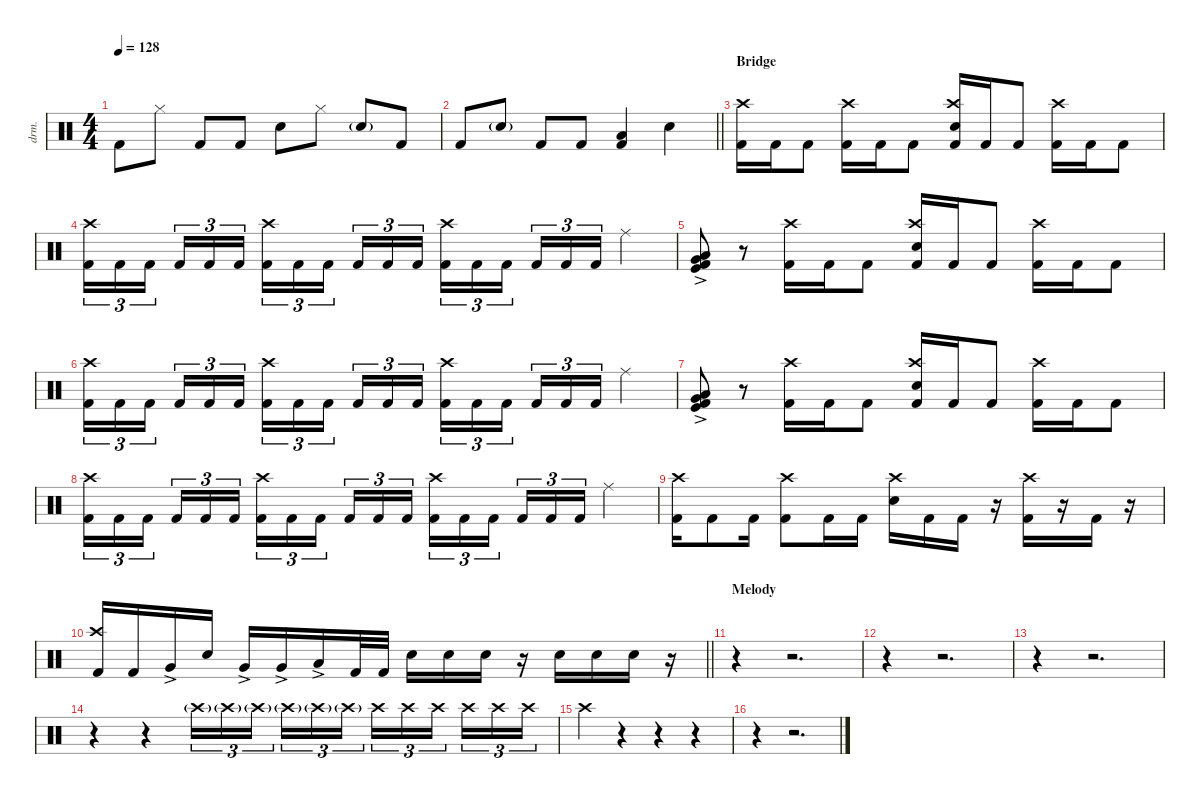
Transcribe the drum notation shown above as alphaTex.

\defaultSystemsLayout 4
\hideDynamics
\bracketExtendMode nobrackets
\otherSystemsTrackNameOrientation horizontal
\track ("Drums" "drm.") {instrument percussion}
\staff {score}
\articulation defaults
\ts (4 4)
\tempo 128
\clef neutral
\ks c "Kick (hit) 2".8{dy f beam Down} "Hi-Hat (closed)".8{beam Down} "Kick (hit) 2".8{beam Up} "Kick (hit) 2".8{beam Up} "Snare (hit) 2".8{beam Down} "Hi-Hat (closed)".8{beam Down} "Snare (hit) 2"{g}.8{beam Up} "Kick (hit) 2".8{beam Up}
|
\barLineRight lightlight "Kick (hit) 2".8{beam Up} "Snare (hit) 2"{g}.8{beam Up} "Kick (hit) 2".8{beam Up} "Kick (hit) 2".8{beam Up}
("Low Tom (hit)" "Kick (hit) 2").4{beam Up} "Snare (hit) 2".4{beam Down} |
\section ("" "Bridge")
("Crash high (hit)" "Kick (hit) 2").16{beam Down} "Kick (hit) 2".16{beam Down} "Kick (hit) 2".8{beam Down} ("Crash high (hit)" "Kick (hit) 2").16{beam Down} "Kick (hit) 2".16{beam Down} "Kick (hit) 2".8{beam Down} ("Crash high (hit)" "Snare (hit) 2" "Kick (hit) 2").16{beam Up} "Kick (hit) 2".16{beam Up} "Kick (hit) 2".8{beam Up} ("Crash high (hit)" "Kick (hit) 2").16{beam Down} "Kick (hit) 2".16{beam Down} "Kick (hit) 2".8{beam Down} |
("Crash high (hit)" "Kick (hit) 2").16{tu (3 2) beam Down} "Kick (hit) 2".16{tu (3 2) beam Down} "Kick (hit) 2".16{tu (3 2) beam Down} "Kick (hit) 2".16{tu (3 2) beam Up} "Kick (hit) 2".16{tu (3 2) beam Up} "Kick (hit) 2".16{tu (3 2) beam Up} ("Crash high (hit)" "Kick (hit) 2").16{tu (3 2) beam Down} "Kick (hit) 2".16{tu (3 2) beam Down} "Kick (hit) 2".16{tu (3 2) beam Down} "Kick (hit) 2".16{tu (3 2) beam Up} "Kick (hit) 2".16{tu (3 2) beam Up} "Kick (hit) 2".16{tu (3 2) beam Up} ("Crash high (hit)" "Kick (hit) 2").16{tu (3 2) beam Down} "Kick (hit) 2".16{tu (3 2) beam Down} "Kick (hit) 2".16{tu (3 2) beam Down} "Kick (hit) 2".16{tu (3 2) beam Up} "Kick (hit) 2".16{tu (3 2) beam Up} "Kick (hit) 2".16{tu (3 2) beam Up} "Ride (middle)".4{beam Down} |
("Very Low Tom (hit)"{ac} "Low Floor Tom (hit)"{ac} "Kick (hit)" "Kick (hit) 2").8{beam Up} r.8{beam Up} ("Crash high (hit)" "Kick (hit) 2").16{beam Down} "Kick (hit) 2".16{beam Down} "Kick (hit) 2".8{beam Down} ("Crash high (hit)" "Snare (hit) 2" "Kick (hit) 2").16{beam Up} "Kick (hit) 2".16{beam Up} "Kick (hit) 2".8{beam Up} ("Crash high (hit)" "Kick (hit) 2").16{beam Down} "Kick (hit) 2".16{beam Down} "Kick (hit) 2".8{beam Down} |
("Crash high (hit)" "Kick (hit) 2").16{tu (3 2) beam Down} "Kick (hit) 2".16{tu (3 2) beam Down} "Kick (hit) 2".16{tu (3 2) beam Down} "Kick (hit) 2".16{tu (3 2) beam Up} "Kick (hit) 2".16{tu (3 2) beam Up} "Kick (hit) 2".16{tu (3 2) beam Up} ("Crash high (hit)" "Kick (hit) 2").16{tu (3 2) beam Down} "Kick (hit) 2".16{tu (3 2) beam Down} "Kick (hit) 2".16{tu (3 2) beam Down} "Kick (hit) 2".16{tu (3 2) beam Up} "Kick (hit) 2".16{tu (3 2) beam Up} "Kick (hit) 2".16{tu (3 2) beam Up} ("Crash high (hit)" "Kick (hit) 2").16{tu (3 2) beam Down} "Kick (hit) 2".16{tu (3 2) beam Down} "Kick (hit) 2".16{tu (3 2) beam Down} "Kick (hit) 2".16{tu (3 2) beam Up} "Kick (hit) 2".16{tu (3 2) beam Up} "Kick (hit) 2".16{tu (3 2) beam Up} "Ride (middle)".4{beam Down} |
("Very Low Tom (hit)"{ac} "Low Floor Tom (hit)"{ac} "Kick (hit)" "Kick (hit) 2").8{beam Up} r.8{beam Up} ("Crash high (hit)" "Kick (hit) 2").16{beam Down} "Kick (hit) 2".16{beam Down} "Kick (hit) 2".8{beam Down} ("Crash high (hit)" "Snare (hit) 2" "Kick (hit) 2").16{beam Up} "Kick (hit) 2".16{beam Up} "Kick (hit) 2".8{beam Up} ("Crash high (hit)" "Kick (hit) 2").16{beam Down} "Kick (hit) 2".16{beam Down} "Kick (hit) 2".8{beam Down} |
("Crash high (hit)" "Kick (hit) 2").16{tu (3 2) beam Down} "Kick (hit) 2".16{tu (3 2) beam Down} "Kick (hit) 2".16{tu (3 2) beam Down} "Kick (hit) 2".16{tu (3 2) beam Up} "Kick (hit) 2".16{tu (3 2) beam Up} "Kick (hit) 2".16{tu (3 2) beam Up} ("Crash high (hit)" "Kick (hit) 2").16{tu (3 2) beam Down} "Kick (hit) 2".16{tu (3 2) beam Down} "Kick (hit) 2".16{tu (3 2) beam Down} "Kick (hit) 2".16{tu (3 2) beam Up} "Kick (hit) 2".16{tu (3 2) beam Up} "Kick (hit) 2".16{tu (3 2) beam Up} ("Crash high (hit)" "Kick (hit) 2").16{tu (3 2) beam Down} "Kick (hit) 2".16{tu (3 2) beam Down} "Kick (hit) 2".16{tu (3 2) beam Down} "Kick (hit) 2".16{tu (3 2) beam Up} "Kick (hit) 2".16{tu (3 2) beam Up} "Kick (hit) 2".16{tu (3 2) beam Up} "Ride (middle)".4{beam Down} |
("Crash high (hit)" "Kick (hit) 2").16{beam Down} "Kick (hit) 2".8{beam Down} "Kick (hit) 2".16{beam Down} ("Crash high (hit)" "Kick (hit) 2").8{beam Down} "Kick (hit) 2".16{beam Down} "Kick (hit) 2".16{beam Down} ("Crash high (hit)" "Snare (hit) 2").16{beam Down} "Kick (hit) 2".16{beam Down} "Kick (hit) 2".16{beam Down} r.16{beam Down} ("Crash high (hit)" "Kick (hit) 2").16{beam Down} r.16{beam Down} "Kick (hit) 2".16{beam Down} r.16{beam Down} |
\barLineRight lightlight
("Crash high (hit)" "Kick (hit) 2").16{beam Up} "Kick (hit) 2".16{beam Up} "Very Low Tom (hit)"{ac}.16{dy mf beam Up} "Snare (hit) 2".16{dy f beam Up} "Very Low Tom (hit)"{ac}.16{dy mf beam Up} "Very Low Tom (hit)"{ac}.16{beam Up} "Low Floor Tom (hit)"{ac}.16{beam Up} "Kick (hit) 2".32{dy f beam Up} "Kick (hit) 2".32{beam Up} "Snare (hit) 2".16{beam Down} "Snare (hit) 2".16{beam Down} "Snare (hit) 2".16{beam Down} r.16{beam Down} "Snare (hit) 2".16{beam Down} "Snare (hit) 2".16{beam Down} "Snare (hit) 2".16{beam Down} r.16{beam Down} |
\section ("" "Melody")
r.4{beam Down} r.2{d beam Down} |
r.4{beam Down} r.2{d beam Down} |
r.4{beam Down} r.2{d beam Down} |
r.4{beam Down} r.4{beam Down} "Crash high (hit)"{g}.16{tu (3 2) beam Down} "Crash high (hit)"{g}.16{tu (3 2) beam Down} "Crash high (hit)"{g}.16{tu (3 2) beam Down} "Crash high (hit)"{g}.16{tu (3 2) beam Down} "Crash high (hit)"{g}.16{tu (3 2) beam Down} "Crash high (hit)"{g}.16{tu (3 2) beam Down} "Crash high (hit)".16{tu (3 2) beam Down} "Crash high (hit)".16{tu (3 2) beam Down} "Crash high (hit)".16{tu (3 2) beam Down} "Crash high (hit)".16{tu (3 2) beam Down} "Crash high (hit)".16{tu (3 2) beam Down} "Crash high (hit)".16{tu (3 2) beam Down} |
"Crash high (hit)".4{beam Down} r.4{beam Down} r.4{beam Down} r.4{beam Down} |
r.4{beam Down} r.2{d beam Down}
